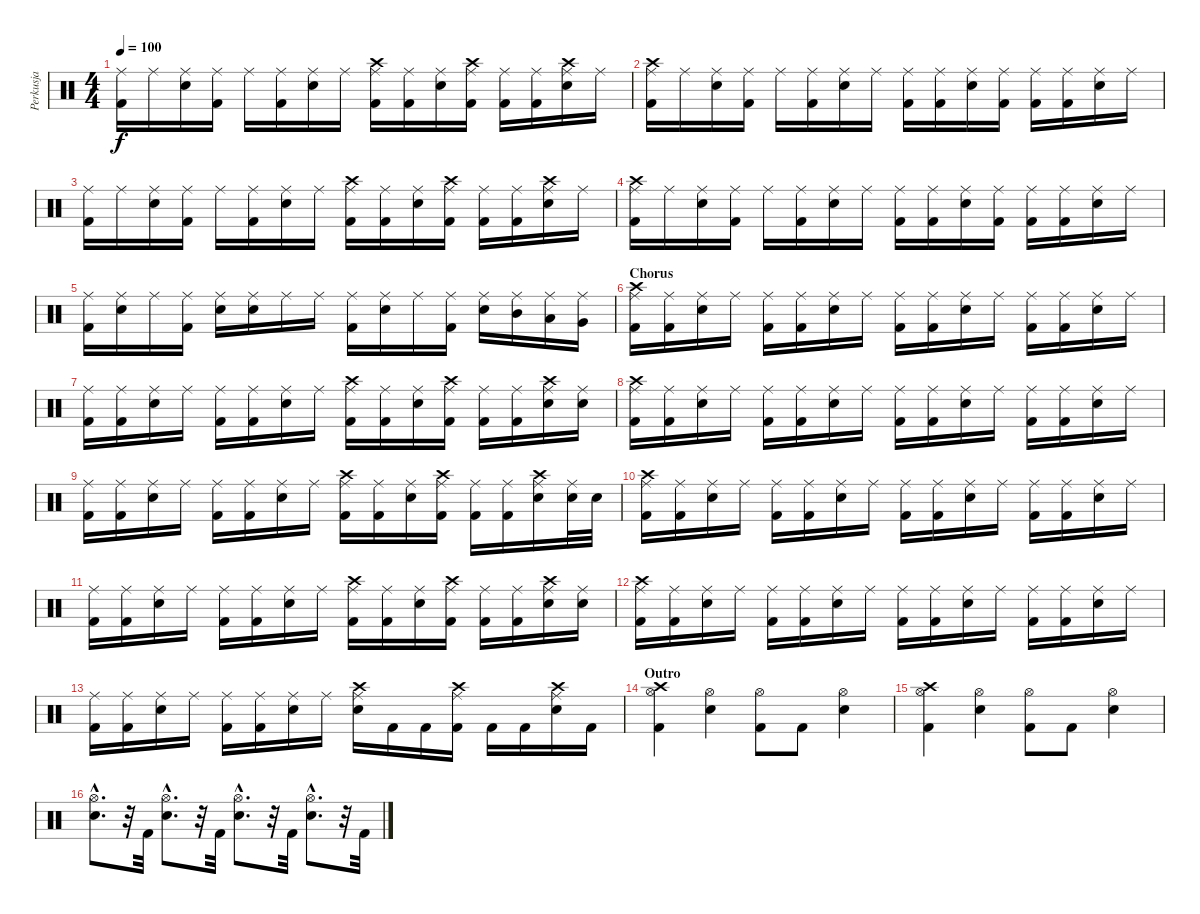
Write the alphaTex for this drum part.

\track ("Perkusja" "Perkusja") {instrument percussion}
\staff {score}
\articulation defaults
\ts (4 4)
\tempo 100
\clef neutral
\ks c
("Kick (hit) 2" "Ride (middle)").16{dy f} "Ride (middle)".16 ("Snare (hit) 2" "Ride (middle)").16 ("Kick (hit) 2" "Ride (middle)").16 "Ride (middle)".16 ("Kick (hit) 2" "Ride (middle)").16 ("Snare (hit) 2" "Ride (middle)").16 "Ride (middle)".16 ("Kick (hit) 2" "Ride (middle)" "Crash high (hit)").16 ("Kick (hit) 2" "Ride (middle)").16 ("Snare (hit) 2" "Ride (middle)").16 ("Kick (hit) 2" "Ride (middle)" "Crash high (hit)").16 ("Kick (hit) 2" "Ride (middle)").16 ("Kick (hit) 2" "Ride (middle)").16 ("Snare (hit) 2" "Ride (middle)" "Crash high (hit)").16 "Ride (middle)".16 |
("Kick (hit) 2" "Ride (middle)" "Crash high (hit)").16 "Ride (middle)".16 ("Snare (hit) 2" "Ride (middle)").16 ("Kick (hit) 2" "Ride (middle)").16 "Ride (middle)".16 ("Kick (hit) 2" "Ride (middle)").16 ("Snare (hit) 2" "Ride (middle)").16 "Ride (middle)".16 ("Kick (hit) 2" "Ride (middle)").16 ("Kick (hit) 2" "Ride (middle)").16 ("Snare (hit) 2" "Ride (middle)").16 ("Kick (hit) 2" "Ride (middle)").16 ("Kick (hit) 2" "Ride (middle)").16 ("Kick (hit) 2" "Ride (middle)").16 ("Snare (hit) 2" "Ride (middle)").16 "Ride (middle)".16 |
("Kick (hit) 2" "Ride (middle)").16 "Ride (middle)".16 ("Snare (hit) 2" "Ride (middle)").16 ("Kick (hit) 2" "Ride (middle)").16 "Ride (middle)".16 ("Kick (hit) 2" "Ride (middle)").16 ("Snare (hit) 2" "Ride (middle)").16 "Ride (middle)".16 ("Kick (hit) 2" "Ride (middle)" "Crash high (hit)").16 ("Kick (hit) 2" "Ride (middle)").16 ("Snare (hit) 2" "Ride (middle)").16 ("Kick (hit) 2" "Ride (middle)" "Crash high (hit)").16 ("Kick (hit) 2" "Ride (middle)").16 ("Kick (hit) 2" "Ride (middle)").16 ("Snare (hit) 2" "Ride (middle)" "Crash high (hit)").16 "Ride (middle)".16 |
("Kick (hit) 2" "Ride (middle)" "Crash high (hit)").16 "Ride (middle)".16 ("Snare (hit) 2" "Ride (middle)").16 ("Kick (hit) 2" "Ride (middle)").16 "Ride (middle)".16 ("Kick (hit) 2" "Ride (middle)").16 ("Snare (hit) 2" "Ride (middle)").16 "Ride (middle)".16 ("Kick (hit) 2" "Ride (middle)").16 ("Kick (hit) 2" "Ride (middle)").16 ("Snare (hit) 2" "Ride (middle)").16 ("Kick (hit) 2" "Ride (middle)").16 ("Kick (hit) 2" "Ride (middle)").16 ("Kick (hit) 2" "Ride (middle)").16 ("Snare (hit) 2" "Ride (middle)").16 "Ride (middle)".16 |
("Kick (hit) 2" "Ride (middle)").16 ("Snare (hit) 2" "Ride (middle)").16 "Ride (middle)".16 ("Kick (hit) 2" "Ride (middle)").16 ("Snare (hit) 2" "Ride (middle)").16 ("Snare (hit) 2" "Ride (middle)").16 "Ride (middle)".16 "Ride (middle)".16 ("Kick (hit) 2" "Ride (middle)").16 ("Snare (hit) 2" "Ride (middle)").16 "Ride (middle)".16 ("Kick (hit) 2" "Ride (middle)").16 ("Snare (hit) 2" "Ride (middle)").16 ("Mid Tom (hit)" "Ride (middle)").16 ("Low Tom (hit)" "Ride (middle)").16 ("Very Low Tom (hit)" "Ride (middle)").16 |
\section ("" "Chorus")
("Kick (hit) 2" "Ride (middle)" "Crash high (hit)").16 ("Kick (hit) 2" "Ride (middle)").16 ("Snare (hit) 2" "Ride (middle)").16 "Ride (middle)".16 ("Kick (hit) 2" "Ride (middle)").16 ("Kick (hit) 2" "Ride (middle)").16 ("Snare (hit) 2" "Ride (middle)").16 "Ride (middle)".16 ("Kick (hit) 2" "Ride (middle)").16 ("Kick (hit) 2" "Ride (middle)").16 ("Snare (hit) 2" "Ride (middle)").16 "Ride (middle)".16 ("Kick (hit) 2" "Ride (middle)").16 ("Kick (hit) 2" "Ride (middle)").16 ("Snare (hit) 2" "Ride (middle)").16 "Ride (middle)".16 |
("Kick (hit) 2" "Ride (middle)").16 ("Kick (hit) 2" "Ride (middle)").16 ("Snare (hit) 2" "Ride (middle)").16 "Ride (middle)".16 ("Kick (hit) 2" "Ride (middle)").16 ("Kick (hit) 2" "Ride (middle)").16 ("Snare (hit) 2" "Ride (middle)").16 "Ride (middle)".16 ("Kick (hit) 2" "Ride (middle)" "Crash high (hit)").16 ("Kick (hit) 2" "Ride (middle)").16 ("Snare (hit) 2" "Ride (middle)").16 ("Kick (hit) 2" "Ride (middle)" "Crash high (hit)").16 ("Kick (hit) 2" "Ride (middle)").16 ("Kick (hit) 2" "Ride (middle)").16 ("Snare (hit) 2" "Ride (middle)" "Crash high (hit)").16 ("Snare (hit) 2" "Ride (middle)").16 |
("Kick (hit) 2" "Ride (middle)" "Crash high (hit)").16 ("Kick (hit) 2" "Ride (middle)").16 ("Snare (hit) 2" "Ride (middle)").16 "Ride (middle)".16 ("Kick (hit) 2" "Ride (middle)").16 ("Kick (hit) 2" "Ride (middle)").16 ("Snare (hit) 2" "Ride (middle)").16 "Ride (middle)".16 ("Kick (hit) 2" "Ride (middle)").16 ("Kick (hit) 2" "Ride (middle)").16 ("Snare (hit) 2" "Ride (middle)").16 "Ride (middle)".16 ("Kick (hit) 2" "Ride (middle)").16 ("Kick (hit) 2" "Ride (middle)").16 ("Snare (hit) 2" "Ride (middle)").16 "Ride (middle)".16 |
("Kick (hit) 2" "Ride (middle)").16 ("Kick (hit) 2" "Ride (middle)").16 ("Snare (hit) 2" "Ride (middle)").16 "Ride (middle)".16 ("Kick (hit) 2" "Ride (middle)").16 ("Kick (hit) 2" "Ride (middle)").16 ("Snare (hit) 2" "Ride (middle)").16 "Ride (middle)".16 ("Kick (hit) 2" "Ride (middle)" "Crash high (hit)").16 ("Kick (hit) 2" "Ride (middle)").16 ("Snare (hit) 2" "Ride (middle)").16 ("Kick (hit) 2" "Ride (middle)" "Crash high (hit)").16 ("Kick (hit) 2" "Ride (middle)").16 ("Kick (hit) 2" "Ride (middle)").16 ("Snare (hit) 2" "Ride (middle)" "Crash high (hit)").16 ("Snare (hit) 2" "Ride (middle)").32 "Snare (hit) 2".32 |
("Kick (hit) 2" "Ride (middle)" "Crash high (hit)").16 ("Kick (hit) 2" "Ride (middle)").16 ("Snare (hit) 2" "Ride (middle)").16 "Ride (middle)".16 ("Kick (hit) 2" "Ride (middle)").16 ("Kick (hit) 2" "Ride (middle)").16 ("Snare (hit) 2" "Ride (middle)").16 "Ride (middle)".16 ("Kick (hit) 2" "Ride (middle)").16 ("Kick (hit) 2" "Ride (middle)").16 ("Snare (hit) 2" "Ride (middle)").16 "Ride (middle)".16 ("Kick (hit) 2" "Ride (middle)").16 ("Kick (hit) 2" "Ride (middle)").16 ("Snare (hit) 2" "Ride (middle)").16 "Ride (middle)".16 |
("Kick (hit) 2" "Ride (middle)").16 ("Kick (hit) 2" "Ride (middle)").16 ("Snare (hit) 2" "Ride (middle)").16 "Ride (middle)".16 ("Kick (hit) 2" "Ride (middle)").16 ("Kick (hit) 2" "Ride (middle)").16 ("Snare (hit) 2" "Ride (middle)").16 "Ride (middle)".16 ("Kick (hit) 2" "Ride (middle)" "Crash high (hit)").16 ("Kick (hit) 2" "Ride (middle)").16 ("Snare (hit) 2" "Ride (middle)").16 ("Kick (hit) 2" "Ride (middle)" "Crash high (hit)").16 ("Kick (hit) 2" "Ride (middle)").16 ("Kick (hit) 2" "Ride (middle)").16 ("Snare (hit) 2" "Ride (middle)" "Crash high (hit)").16 ("Snare (hit) 2" "Ride (middle)").16 |
("Kick (hit) 2" "Ride (middle)" "Crash high (hit)").16 ("Kick (hit) 2" "Ride (middle)").16 ("Snare (hit) 2" "Ride (middle)").16 "Ride (middle)".16 ("Kick (hit) 2" "Ride (middle)").16 ("Kick (hit) 2" "Ride (middle)").16 ("Snare (hit) 2" "Ride (middle)").16 "Ride (middle)".16 ("Kick (hit) 2" "Ride (middle)").16 ("Kick (hit) 2" "Ride (middle)").16 ("Snare (hit) 2" "Ride (middle)").16 "Ride (middle)".16 ("Kick (hit) 2" "Ride (middle)").16 ("Kick (hit) 2" "Ride (middle)").16 ("Snare (hit) 2" "Ride (middle)").16 "Ride (middle)".16 |
("Kick (hit) 2" "Ride (middle)").16 ("Kick (hit) 2" "Ride (middle)").16 ("Snare (hit) 2" "Ride (middle)").16 "Ride (middle)".16 ("Kick (hit) 2" "Ride (middle)").16 ("Kick (hit) 2" "Ride (middle)").16 ("Snare (hit) 2" "Ride (middle)").16 "Ride (middle)".16 ("Snare (hit) 2" "Ride (middle)" "Crash high (hit)").16 "Kick (hit) 2".16 "Kick (hit) 2".16 ("Kick (hit) 2" "Ride (middle)" "Crash high (hit)").16 "Kick (hit) 2".16 "Kick (hit) 2".16 ("Snare (hit) 2" "Ride (middle)" "Crash high (hit)").16 "Kick (hit) 2".16 |
\section ("" "Outro")
("Kick (hit) 2" "Hi-Hat (open)" "Crash high (hit)").4 ("Snare (hit) 2" "Hi-Hat (open)").4 ("Kick (hit) 2" "Hi-Hat (open)").8 "Kick (hit) 2".8 ("Snare (hit) 2" "Hi-Hat (open)").4 |
("Kick (hit) 2" "Hi-Hat (open)" "Crash high (hit)").4 ("Snare (hit) 2" "Hi-Hat (open)").4 ("Kick (hit) 2" "Hi-Hat (open)").8 "Kick (hit) 2".8 ("Snare (hit) 2" "Hi-Hat (open)").4 |
("Snare (hit) 2"{hac} "Hi-Hat (open)"{hac}).8{d} r.32 "Kick (hit) 2".32 ("Snare (hit) 2"{hac} "Hi-Hat (open)"{hac}).8{d} r.32 "Kick (hit) 2".32 ("Snare (hit) 2"{hac} "Hi-Hat (open)"{hac}).8{d} r.32 "Kick (hit) 2".32 ("Snare (hit) 2"{hac} "Hi-Hat (open)"{hac}).8{d} r.32 "Kick (hit) 2".32
